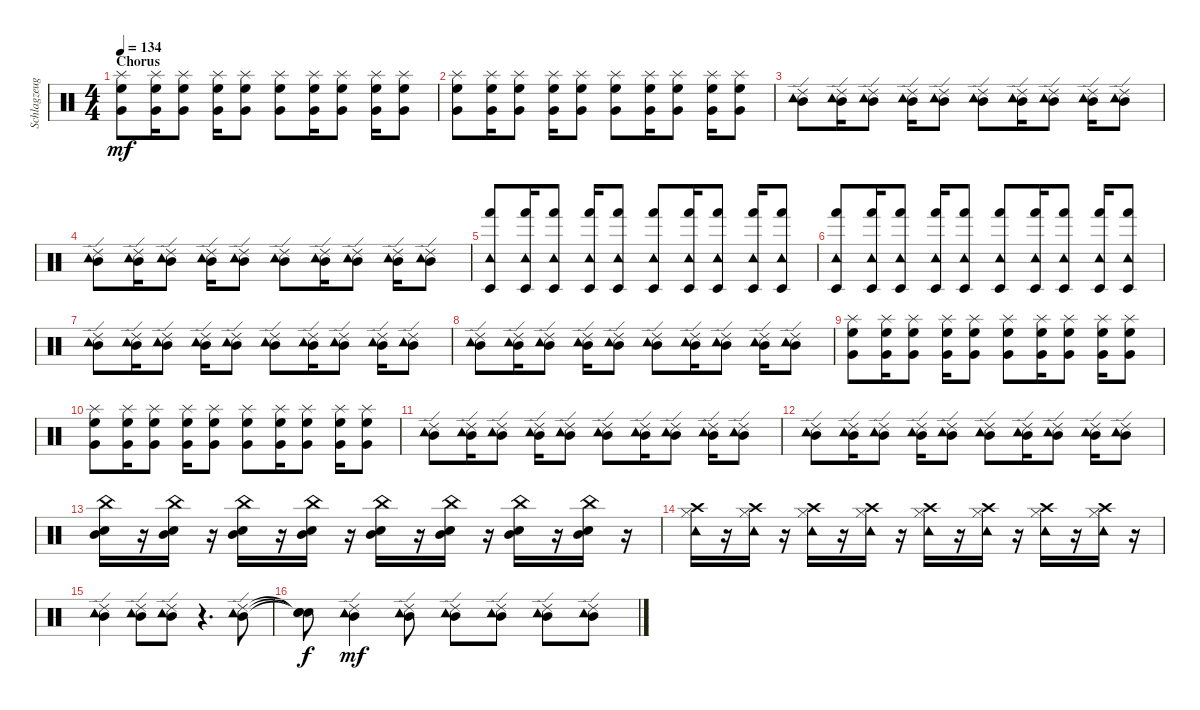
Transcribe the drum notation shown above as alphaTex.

\track ("Schlagzeug - Bela B." "Schlagzeug") {instrument percussion}
\staff {score}
\articulation defaults
\ts (4 4)
\section ("" "Chorus")
\tempo 134
\clef neutral
\ks c
("Very Low Tom (hit)" "High Floor Tom (hit)" "Splash (hit)").8{dy mf} ("Very Low Tom (hit)" "High Floor Tom (hit)" "Splash (hit)").16 ("Very Low Tom (hit)" "High Floor Tom (hit)" "Splash (hit)").8 ("Very Low Tom (hit)" "High Floor Tom (hit)" "Splash (hit)").16 ("Very Low Tom (hit)" "High Floor Tom (hit)" "Splash (hit)").8 ("Very Low Tom (hit)" "High Floor Tom (hit)" "Splash (hit)").8 ("Very Low Tom (hit)" "High Floor Tom (hit)" "Splash (hit)").16 ("Very Low Tom (hit)" "High Floor Tom (hit)" "Splash (hit)").8 ("Very Low Tom (hit)" "High Floor Tom (hit)" "Splash (hit)").16 ("Very Low Tom (hit)" "High Floor Tom (hit)" "Splash (hit)").8 |
("Very Low Tom (hit)" "High Floor Tom (hit)" "Splash (hit)").8 ("Very Low Tom (hit)" "High Floor Tom (hit)" "Splash (hit)").16 ("Very Low Tom (hit)" "High Floor Tom (hit)" "Splash (hit)").8 ("Very Low Tom (hit)" "High Floor Tom (hit)" "Splash (hit)").16 ("Very Low Tom (hit)" "High Floor Tom (hit)" "Splash (hit)").8 ("Very Low Tom (hit)" "High Floor Tom (hit)" "Splash (hit)").8 ("Very Low Tom (hit)" "High Floor Tom (hit)" "Splash (hit)").16 ("Very Low Tom (hit)" "High Floor Tom (hit)" "Splash (hit)").8 ("Very Low Tom (hit)" "High Floor Tom (hit)" "Splash (hit)").16 ("Very Low Tom (hit)" "High Floor Tom (hit)" "Splash (hit)").8 |
("Mid Tom (hit)" "Tambourine (hit)" "Ride (edge) 2").8 ("Mid Tom (hit)" "Tambourine (hit)" "Ride (edge) 2").16 ("Mid Tom (hit)" "Tambourine (hit)" "Ride (edge) 2").8 ("Mid Tom (hit)" "Tambourine (hit)" "Ride (edge) 2").16 ("Mid Tom (hit)" "Tambourine (hit)" "Ride (edge) 2").8 ("Mid Tom (hit)" "Tambourine (hit)" "Ride (edge) 2").8 ("Mid Tom (hit)" "Tambourine (hit)" "Ride (edge) 2").16 ("Mid Tom (hit)" "Tambourine (hit)" "Ride (edge) 2").8 ("Mid Tom (hit)" "Tambourine (hit)" "Ride (edge) 2").16 ("Mid Tom (hit)" "Tambourine (hit)" "Ride (edge) 2").8 |
("Mid Tom (hit)" "Tambourine (hit)" "Ride (edge) 2").8 ("Mid Tom (hit)" "Tambourine (hit)" "Ride (edge) 2").16 ("Mid Tom (hit)" "Tambourine (hit)" "Ride (edge) 2").8 ("Mid Tom (hit)" "Tambourine (hit)" "Ride (edge) 2").16 ("Mid Tom (hit)" "Tambourine (hit)" "Ride (edge) 2").8 ("Mid Tom (hit)" "Tambourine (hit)" "Ride (edge) 2").8 ("Mid Tom (hit)" "Tambourine (hit)" "Ride (edge) 2").16 ("Mid Tom (hit)" "Tambourine (hit)" "Ride (edge) 2").8 ("Mid Tom (hit)" "Tambourine (hit)" "Ride (edge) 2").16 ("Mid Tom (hit)" "Tambourine (hit)" "Ride (edge) 2").8 |
("Tambourine (hit)" "Hand (hit)" "Timbale low (hit)").8 ("Tambourine (hit)" "Hand (hit)" "Timbale low (hit)").16 ("Tambourine (hit)" "Hand (hit)" "Timbale low (hit)").8 ("Tambourine (hit)" "Hand (hit)" "Timbale low (hit)").16 ("Tambourine (hit)" "Hand (hit)" "Timbale low (hit)").8 ("Tambourine (hit)" "Hand (hit)" "Timbale low (hit)").8 ("Tambourine (hit)" "Hand (hit)" "Timbale low (hit)").16 ("Tambourine (hit)" "Hand (hit)" "Timbale low (hit)").8 ("Tambourine (hit)" "Hand (hit)" "Timbale low (hit)").16 ("Tambourine (hit)" "Hand (hit)" "Timbale low (hit)").8 |
("Tambourine (hit)" "Hand (hit)" "Timbale low (hit)").8 ("Tambourine (hit)" "Hand (hit)" "Timbale low (hit)").16 ("Tambourine (hit)" "Hand (hit)" "Timbale low (hit)").8 ("Tambourine (hit)" "Hand (hit)" "Timbale low (hit)").16 ("Tambourine (hit)" "Hand (hit)" "Timbale low (hit)").8 ("Tambourine (hit)" "Hand (hit)" "Timbale low (hit)").8 ("Tambourine (hit)" "Hand (hit)" "Timbale low (hit)").16 ("Tambourine (hit)" "Hand (hit)" "Timbale low (hit)").8 ("Tambourine (hit)" "Hand (hit)" "Timbale low (hit)").16 ("Tambourine (hit)" "Hand (hit)" "Timbale low (hit)").8 |
("Mid Tom (hit)" "Tambourine (hit)" "Ride (edge) 2").8 ("Mid Tom (hit)" "Tambourine (hit)" "Ride (edge) 2").16 ("Mid Tom (hit)" "Tambourine (hit)" "Ride (edge) 2").8 ("Mid Tom (hit)" "Tambourine (hit)" "Ride (edge) 2").16 ("Mid Tom (hit)" "Tambourine (hit)" "Ride (edge) 2").8 ("Mid Tom (hit)" "Tambourine (hit)" "Ride (edge) 2").8 ("Mid Tom (hit)" "Tambourine (hit)" "Ride (edge) 2").16 ("Mid Tom (hit)" "Tambourine (hit)" "Ride (edge) 2").8 ("Mid Tom (hit)" "Tambourine (hit)" "Ride (edge) 2").16 ("Mid Tom (hit)" "Tambourine (hit)" "Ride (edge) 2").8 |
("Mid Tom (hit)" "Tambourine (hit)" "Ride (edge) 2").8 ("Mid Tom (hit)" "Tambourine (hit)" "Ride (edge) 2").16 ("Mid Tom (hit)" "Tambourine (hit)" "Ride (edge) 2").8 ("Mid Tom (hit)" "Tambourine (hit)" "Ride (edge) 2").16 ("Mid Tom (hit)" "Tambourine (hit)" "Ride (edge) 2").8 ("Mid Tom (hit)" "Tambourine (hit)" "Ride (edge) 2").8 ("Mid Tom (hit)" "Tambourine (hit)" "Ride (edge) 2").16 ("Mid Tom (hit)" "Tambourine (hit)" "Ride (edge) 2").8 ("Mid Tom (hit)" "Tambourine (hit)" "Ride (edge) 2").16 ("Mid Tom (hit)" "Tambourine (hit)" "Ride (edge) 2").8 |
("Very Low Tom (hit)" "High Floor Tom (hit)" "Splash (hit)").8 ("Very Low Tom (hit)" "High Floor Tom (hit)" "Splash (hit)").16 ("Very Low Tom (hit)" "High Floor Tom (hit)" "Splash (hit)").8 ("Very Low Tom (hit)" "High Floor Tom (hit)" "Splash (hit)").16 ("Very Low Tom (hit)" "High Floor Tom (hit)" "Splash (hit)").8 ("Very Low Tom (hit)" "High Floor Tom (hit)" "Splash (hit)").8 ("Very Low Tom (hit)" "High Floor Tom (hit)" "Splash (hit)").16 ("Very Low Tom (hit)" "High Floor Tom (hit)" "Splash (hit)").8 ("Very Low Tom (hit)" "High Floor Tom (hit)" "Splash (hit)").16 ("Very Low Tom (hit)" "High Floor Tom (hit)" "Splash (hit)").8 |
("Very Low Tom (hit)" "High Floor Tom (hit)" "Splash (hit)").8 ("Very Low Tom (hit)" "High Floor Tom (hit)" "Splash (hit)").16 ("Very Low Tom (hit)" "High Floor Tom (hit)" "Splash (hit)").8 ("Very Low Tom (hit)" "High Floor Tom (hit)" "Splash (hit)").16 ("Very Low Tom (hit)" "High Floor Tom (hit)" "Splash (hit)").8 ("Very Low Tom (hit)" "High Floor Tom (hit)" "Splash (hit)").8 ("Very Low Tom (hit)" "High Floor Tom (hit)" "Splash (hit)").16 ("Very Low Tom (hit)" "High Floor Tom (hit)" "Splash (hit)").8 ("Very Low Tom (hit)" "High Floor Tom (hit)" "Splash (hit)").16 ("Very Low Tom (hit)" "High Floor Tom (hit)" "Splash (hit)").8 |
("Mid Tom (hit)" "Tambourine (hit)" "Ride (edge) 2").8 ("Mid Tom (hit)" "Tambourine (hit)" "Ride (edge) 2").16 ("Mid Tom (hit)" "Tambourine (hit)" "Ride (edge) 2").8 ("Mid Tom (hit)" "Tambourine (hit)" "Ride (edge) 2").16 ("Mid Tom (hit)" "Tambourine (hit)" "Ride (edge) 2").8 ("Mid Tom (hit)" "Tambourine (hit)" "Ride (edge) 2").8 ("Mid Tom (hit)" "Tambourine (hit)" "Ride (edge) 2").16 ("Mid Tom (hit)" "Tambourine (hit)" "Ride (edge) 2").8 ("Mid Tom (hit)" "Tambourine (hit)" "Ride (edge) 2").16 ("Mid Tom (hit)" "Tambourine (hit)" "Ride (edge) 2").8 |
("Mid Tom (hit)" "Tambourine (hit)" "Ride (edge) 2").8 ("Mid Tom (hit)" "Tambourine (hit)" "Ride (edge) 2").16 ("Mid Tom (hit)" "Tambourine (hit)" "Ride (edge) 2").8 ("Mid Tom (hit)" "Tambourine (hit)" "Ride (edge) 2").16 ("Mid Tom (hit)" "Tambourine (hit)" "Ride (edge) 2").8 ("Mid Tom (hit)" "Tambourine (hit)" "Ride (edge) 2").8 ("Mid Tom (hit)" "Tambourine (hit)" "Ride (edge) 2").16 ("Mid Tom (hit)" "Tambourine (hit)" "Ride (edge) 2").8 ("Mid Tom (hit)" "Tambourine (hit)" "Ride (edge) 2").16 ("Mid Tom (hit)" "Tambourine (hit)" "Ride (edge) 2").8 |
("Electric Snare (hit)" "Mid Tom (hit)" "China (hit)").16 r.16 ("Electric Snare (hit)" "Mid Tom (hit)" "China (hit)").16 r.16 ("Electric Snare (hit)" "Mid Tom (hit)" "China (hit)").16 r.16 ("Electric Snare (hit)" "Mid Tom (hit)" "China (hit)").16 r.16 ("Electric Snare (hit)" "Mid Tom (hit)" "China (hit)").16 r.16 ("Electric Snare (hit)" "Mid Tom (hit)" "China (hit)").16 r.16 ("Electric Snare (hit)" "Mid Tom (hit)" "China (hit)").16 r.16 ("Electric Snare (hit)" "Mid Tom (hit)" "China (hit)").16 r.16 |
("Hi-Hat (closed)" "Crash high (hit)" "Tambourine (hit)").16 r.16 ("Hi-Hat (closed)" "Crash high (hit)" "Tambourine (hit)").16 r.16 ("Hi-Hat (closed)" "Crash high (hit)" "Tambourine (hit)").16 r.16 ("Hi-Hat (closed)" "Crash high (hit)" "Tambourine (hit)").16 r.16 ("Hi-Hat (closed)" "Crash high (hit)" "Tambourine (hit)").16 r.16 ("Hi-Hat (closed)" "Crash high (hit)" "Tambourine (hit)").16 r.16 ("Hi-Hat (closed)" "Crash high (hit)" "Tambourine (hit)").16 r.16 ("Hi-Hat (closed)" "Crash high (hit)" "Tambourine (hit)").16 r.16 |
("Mid Tom (hit)" "Tambourine (hit)" "Ride (edge) 2").4 ("Mid Tom (hit)" "Tambourine (hit)" "Ride (edge) 2").8 ("Mid Tom (hit)" "Tambourine (hit)" "Ride (edge) 2").8 r.4{d} ("Mid Tom (hit)" "Ride (edge) 2" "Tambourine (hit)").8 |
("Snare (hit)"{t} "Snare (hit)"{t} "Snare (hit)"{t}).8{dy f} ("Mid Tom (hit)" "Ride (edge) 2" "Tambourine (hit)").4{dy mf} ("Mid Tom (hit)" "Tambourine (hit)" "Ride (edge) 2").8 ("Mid Tom (hit)" "Tambourine (hit)" "Ride (edge) 2").8 ("Mid Tom (hit)" "Tambourine (hit)" "Ride (edge) 2").8 ("Mid Tom (hit)" "Tambourine (hit)" "Ride (edge) 2").8 ("Mid Tom (hit)" "Tambourine (hit)" "Ride (edge) 2").8
